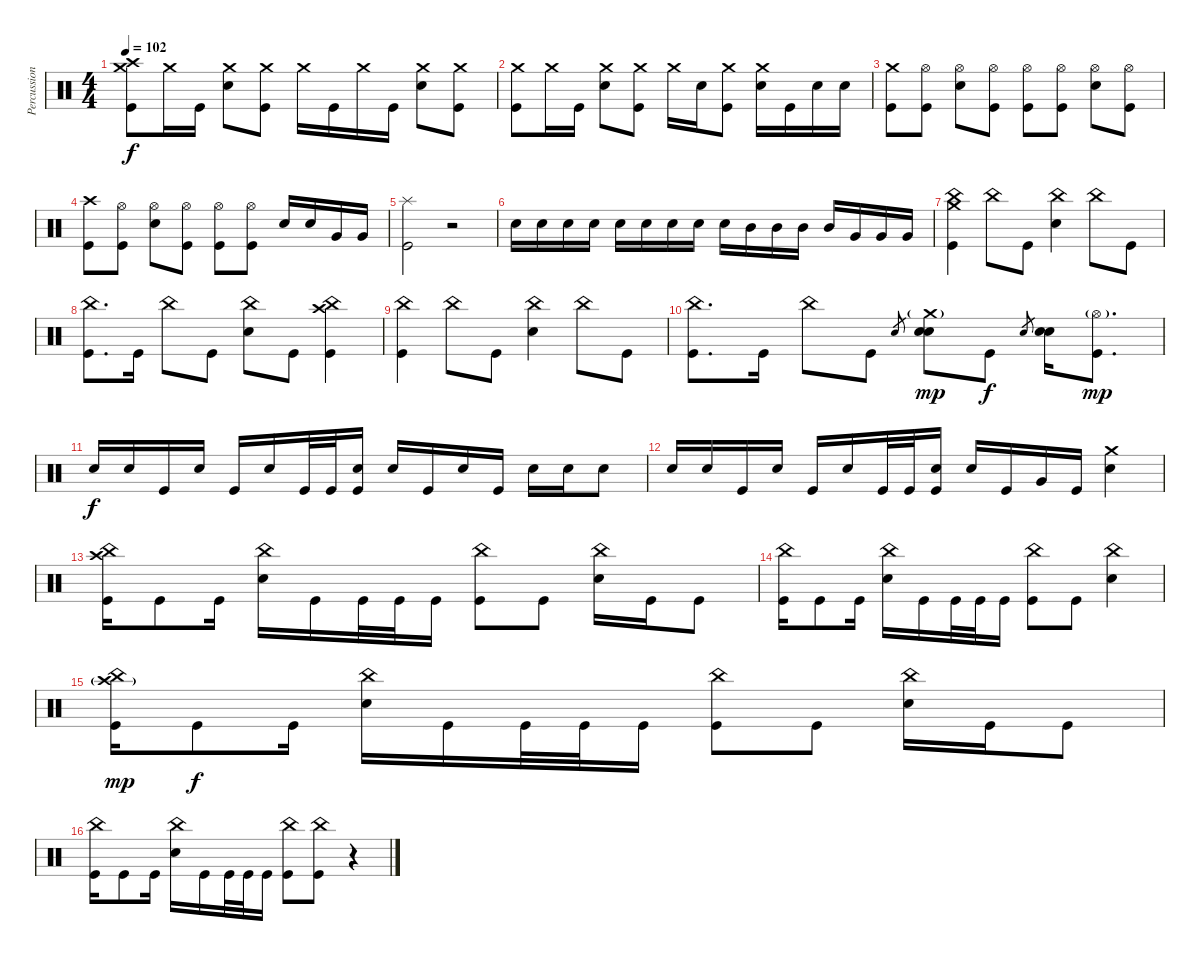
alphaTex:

\track ("Percussion" "Percussion") {instrument percussion}
\staff {score}
\articulation defaults
\ts (4 4)
\tempo 102
\clef neutral
\ks c
("Crash high (hit)" "Crash medium (hit)" "Kick (hit)").8{dy f} "Crash medium (hit)".16 "Kick (hit)".16 ("Crash medium (hit)" "Snare (hit) 2").8 ("Crash medium (hit)" "Kick (hit)").8 "Crash medium (hit)".16 "Kick (hit)".16 "Crash medium (hit)".16 "Kick (hit)".16 ("Crash medium (hit)" "Snare (hit) 2").8 ("Crash medium (hit)" "Kick (hit)").8 |
("Crash medium (hit)" "Kick (hit)").8 "Crash medium (hit)".16 "Kick (hit)".16 ("Crash medium (hit)" "Snare (hit) 2").8 ("Crash medium (hit)" "Kick (hit)").8 "Crash medium (hit)".16 "Snare (hit) 2".16 ("Crash medium (hit)" "Kick (hit)").8 ("Crash medium (hit)" "Snare (hit) 2").16 "Kick (hit)".16 "Snare (hit) 2".16 "Snare (hit) 2".16 |
("Crash medium (hit)" "Kick (hit)").8 ("Hi-Hat (open)" "Kick (hit)").8 ("Hi-Hat (open)" "Snare (hit) 2").8 ("Hi-Hat (open)" "Kick (hit)").8 ("Hi-Hat (open)" "Kick (hit)").8 ("Hi-Hat (open)" "Kick (hit)").8 ("Hi-Hat (open)" "Snare (hit) 2").8 ("Hi-Hat (open)" "Kick (hit)").8 |
("Crash high (hit)" "Kick (hit)").8 ("Hi-Hat (open)" "Kick (hit)").8 ("Hi-Hat (open)" "Snare (hit) 2").8 ("Hi-Hat (open)" "Kick (hit)").8 ("Hi-Hat (open)" "Kick (hit)").8 ("Hi-Hat (open)" "Kick (hit)").8 "Snare (hit) 2".16 "Snare (hit) 2".16 "Very Low Tom (hit)".16 "Very Low Tom (hit)".16 |
("Splash (hit)" "Kick (hit)").2 r.2{volume 6} |
"Snare (hit) 2".16{volume 13} "Snare (hit) 2".16 "Snare (hit) 2".16 "Snare (hit) 2".16 "Snare (hit) 2".16 "Snare (hit) 2".16 "Snare (hit) 2".16 "Snare (hit) 2".16 "Snare (hit) 2".16 "Mid Tom (hit)".16 "Mid Tom (hit)".16 "Mid Tom (hit)".16 "Mid Tom (hit)".16 "Very Low Tom (hit)".16 "Very Low Tom (hit)".16 "Very Low Tom (hit)".16 |
("Crash medium (hit)" "China (hit)" "Kick (hit)").4 "China (hit)".8 "Kick (hit)".8 ("China (hit)" "Snare (hit) 2").4 "China (hit)".8 "Kick (hit)".8 |
("China (hit)" "Kick (hit)").8{d} "Kick (hit)".16 "China (hit)".8 "Kick (hit)".8 ("China (hit)" "Snare (hit) 2").8 "Kick (hit)".8 ("China (hit)" "Crash high (hit)" "Kick (hit)").4 |
("China (hit)" "Kick (hit)").4 "China (hit)".8 "Kick (hit)".8 ("China (hit)" "Snare (hit) 2").4 "China (hit)".8 "Kick (hit)".8 |
("China (hit)" "Kick (hit)").8{d} "Kick (hit)".16 "China (hit)".8 "Kick (hit)".8 "Snare (hit) 2".8{gr} ("Crash medium (hit)"{g} "Snare (hit) 2" "Snare (hit) 2").8{dy mp} "Kick (hit)".8{dy f} "Snare (hit) 2".8{gr} ("Snare (hit) 2" "Snare (hit) 2").16 ("Hi-Hat (open)"{g} "Kick (hit)").8{d dy mp} |
"Snare (hit) 2".16{dy f} "Snare (hit) 2".16 "Kick (hit)".16 "Snare (hit) 2".16 "Kick (hit)".16 "Snare (hit) 2".16 "Kick (hit)".32 "Kick (hit)".32 ("Snare (hit) 2" "Kick (hit)").16 "Snare (hit) 2".16 "Kick (hit)".16 "Snare (hit) 2".16 "Kick (hit)".16 "Snare (hit) 2".16 "Snare (hit) 2".16 "Snare (hit) 2".8 |
"Snare (hit) 2".16 "Snare (hit) 2".16 "Kick (hit)".16 "Snare (hit) 2".16 "Kick (hit)".16 "Snare (hit) 2".16 "Kick (hit)".32 "Kick (hit)".32 ("Snare (hit) 2" "Kick (hit)").16 "Snare (hit) 2".16 "Kick (hit)".16 "Very Low Tom (hit)".16 "Kick (hit)".16 ("Crash medium (hit)" "Snare (hit) 2").4 |
("Crash high (hit)" "China (hit)" "Kick (hit)").16 "Kick (hit)".8 "Kick (hit)".16 ("China (hit)" "Snare (hit) 2").16 "Kick (hit)".16 "Kick (hit)".32 "Kick (hit)".32 "Kick (hit)".16 ("China (hit)" "Kick (hit)").8 "Kick (hit)".8 ("China (hit)" "Snare (hit) 2").16 "Kick (hit)".16 "Kick (hit)".8 |
("China (hit)" "Kick (hit)").16 "Kick (hit)".8 "Kick (hit)".16 ("China (hit)" "Snare (hit) 2").16 "Kick (hit)".16 "Kick (hit)".32 "Kick (hit)".32 "Kick (hit)".16 ("China (hit)" "Kick (hit)").8 "Kick (hit)".8 ("China (hit)" "Snare (hit) 2").4 |
("Crash high (hit)"{g} "China (hit)" "Kick (hit)").16{dy mp} "Kick (hit)".8{dy f} "Kick (hit)".16 ("China (hit)" "Snare (hit) 2").16 "Kick (hit)".16 "Kick (hit)".32 "Kick (hit)".32 "Kick (hit)".16 ("China (hit)" "Kick (hit)").8 "Kick (hit)".8 ("China (hit)" "Snare (hit) 2").16 "Kick (hit)".16 "Kick (hit)".8 |
("China (hit)" "Kick (hit)").16 "Kick (hit)".8 "Kick (hit)".16 ("China (hit)" "Snare (hit) 2").16 "Kick (hit)".16 "Kick (hit)".32 "Kick (hit)".32 "Kick (hit)".16 ("China (hit)" "Kick (hit)").8 ("China (hit)" "Kick (hit)").8 r.4
